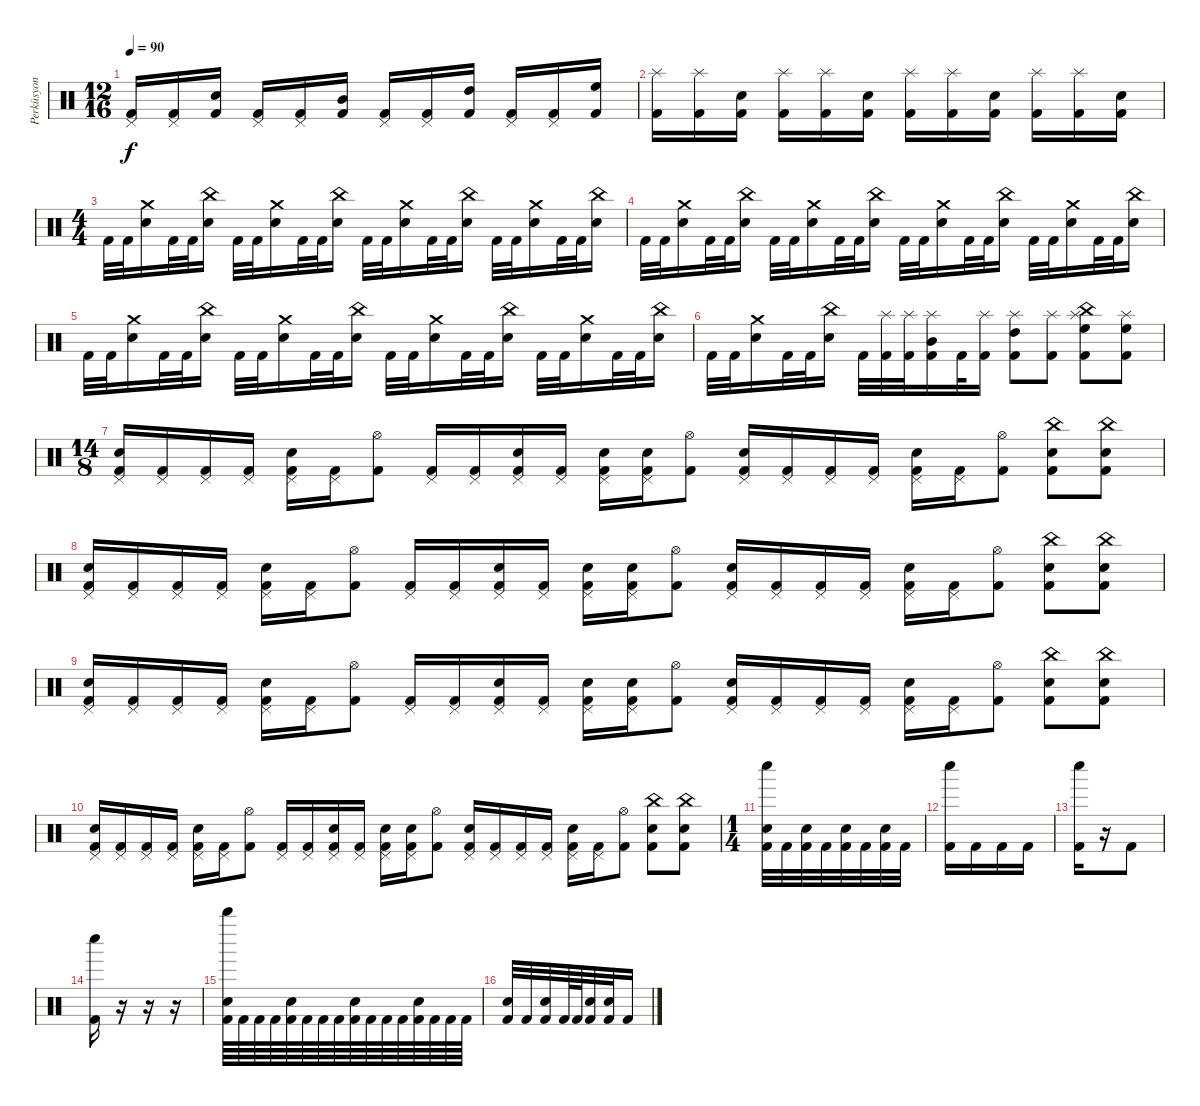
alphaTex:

\track ("Perküsyon" "Perküsyon") {instrument percussion}
\staff {score}
\articulation defaults
\ts (12 16)
\tempo 90
\clef neutral
\ks c
("Pedal Hi-Hat (hit)" "Kick (hit) 2").16{dy f} ("Pedal Hi-Hat (hit)" "Kick (hit) 2").16 ("Electric Snare (hit)" "Kick (hit) 2").16 ("Pedal Hi-Hat (hit)" "Kick (hit) 2").16 ("Pedal Hi-Hat (hit)" "Kick (hit) 2").16 ("Mid Tom (hit)" "Kick (hit) 2").16 ("Pedal Hi-Hat (hit)" "Kick (hit) 2").16 ("Pedal Hi-Hat (hit)" "Kick (hit) 2").16 ("High Tom (hit)" "Kick (hit) 2").16 ("Pedal Hi-Hat (hit)" "Kick (hit) 2").16 ("Pedal Hi-Hat (hit)" "Kick (hit) 2").16 ("High Floor Tom (hit)" "Kick (hit) 2").16 |
("Splash (hit)" "Kick (hit) 2").16 ("Splash (hit)" "Kick (hit) 2").16 ("Electric Snare (hit)" "Kick (hit) 2").16 ("Splash (hit)" "Kick (hit) 2").16 ("Splash (hit)" "Kick (hit) 2").16 ("Electric Snare (hit)" "Kick (hit) 2").16 ("Splash (hit)" "Kick (hit) 2").16 ("Splash (hit)" "Kick (hit) 2").16 ("Electric Snare (hit)" "Kick (hit) 2").16 ("Splash (hit)" "Kick (hit) 2").16 ("Splash (hit)" "Kick (hit) 2").16 ("Electric Snare (hit)" "Kick (hit) 2").16 |
\ts (4 4)
"Kick (hit) 2".32 "Kick (hit) 2".32 ("Crash medium (hit)" "Electric Snare (hit)").16 "Kick (hit) 2".32 "Kick (hit) 2".32 ("China (hit)" "Electric Snare (hit)").16 "Kick (hit) 2".32 "Kick (hit) 2".32 ("Crash medium (hit)" "Electric Snare (hit)").16 "Kick (hit) 2".32 "Kick (hit) 2".32 ("China (hit)" "Electric Snare (hit)").16 "Kick (hit) 2".32 "Kick (hit) 2".32 ("Crash medium (hit)" "Electric Snare (hit)").16 "Kick (hit) 2".32 "Kick (hit) 2".32 ("China (hit)" "Electric Snare (hit)").16 "Kick (hit) 2".32 "Kick (hit) 2".32 ("Crash medium (hit)" "Electric Snare (hit)").16 "Kick (hit) 2".32 "Kick (hit) 2".32 ("China (hit)" "Electric Snare (hit)").16 |
"Kick (hit) 2".32 "Kick (hit) 2".32 ("Crash medium (hit)" "Electric Snare (hit)").16 "Kick (hit) 2".32 "Kick (hit) 2".32 ("China (hit)" "Electric Snare (hit)").16 "Kick (hit) 2".32 "Kick (hit) 2".32 ("Crash medium (hit)" "Electric Snare (hit)").16 "Kick (hit) 2".32 "Kick (hit) 2".32 ("China (hit)" "Electric Snare (hit)").16 "Kick (hit) 2".32 "Kick (hit) 2".32 ("Crash medium (hit)" "Electric Snare (hit)").16 "Kick (hit) 2".32 "Kick (hit) 2".32 ("China (hit)" "Electric Snare (hit)").16 "Kick (hit) 2".32 "Kick (hit) 2".32 ("Crash medium (hit)" "Electric Snare (hit)").16 "Kick (hit) 2".32 "Kick (hit) 2".32 ("China (hit)" "Electric Snare (hit)").16 |
"Kick (hit) 2".32 "Kick (hit) 2".32 ("Crash medium (hit)" "Electric Snare (hit)").16 "Kick (hit) 2".32 "Kick (hit) 2".32 ("China (hit)" "Electric Snare (hit)").16 "Kick (hit) 2".32 "Kick (hit) 2".32 ("Crash medium (hit)" "Electric Snare (hit)").16 "Kick (hit) 2".32 "Kick (hit) 2".32 ("China (hit)" "Electric Snare (hit)").16 "Kick (hit) 2".32 "Kick (hit) 2".32 ("Crash medium (hit)" "Electric Snare (hit)").16 "Kick (hit) 2".32 "Kick (hit) 2".32 ("China (hit)" "Electric Snare (hit)").16 "Kick (hit) 2".32 "Kick (hit) 2".32 ("Crash medium (hit)" "Electric Snare (hit)").16 "Kick (hit) 2".32 "Kick (hit) 2".32 ("China (hit)" "Electric Snare (hit)").16 |
"Kick (hit) 2".32 "Kick (hit) 2".32 ("Crash medium (hit)" "Electric Snare (hit)").16 "Kick (hit) 2".32 "Kick (hit) 2".32 ("China (hit)" "Electric Snare (hit)").16 "Kick (hit) 2".32 ("Splash (hit)" "Kick (hit) 2").32 ("Splash (hit)" "Kick (hit) 2").32 ("Splash (hit)" "Mid Tom (hit)" "Kick (hit) 2").16 "Kick (hit) 2".32 ("Splash (hit)" "Kick (hit) 2").16 ("Splash (hit)" "High Tom (hit)" "Kick (hit) 2").8 ("Splash (hit)" "Kick (hit) 2").8 ("Splash (hit)" "High Floor Tom (hit)" "China (hit)" "Kick (hit) 2").8 ("Splash (hit)" "High Floor Tom (hit)" "Kick (hit) 2").8 |
\ts (14 8)
("Pedal Hi-Hat (hit)" "Electric Snare (hit)" "Kick (hit) 2").16 ("Pedal Hi-Hat (hit)" "Kick (hit) 2").16 ("Pedal Hi-Hat (hit)" "Kick (hit) 2").16 ("Pedal Hi-Hat (hit)" "Kick (hit) 2").16 ("Pedal Hi-Hat (hit)" "Electric Snare (hit)" "Kick (hit) 2").16 ("Pedal Hi-Hat (hit)" "Kick (hit) 2").16 ("Hi-Hat (open)" "Kick (hit) 2").8 ("Pedal Hi-Hat (hit)" "Kick (hit) 2").16 ("Pedal Hi-Hat (hit)" "Kick (hit) 2").16 ("Pedal Hi-Hat (hit)" "Electric Snare (hit)" "Kick (hit) 2").16 ("Pedal Hi-Hat (hit)" "Kick (hit) 2").16 ("Pedal Hi-Hat (hit)" "Electric Snare (hit)" "Kick (hit) 2").16 ("Pedal Hi-Hat (hit)" "Electric Snare (hit)" "Kick (hit) 2").16 ("Hi-Hat (open)" "Kick (hit) 2").8 ("Pedal Hi-Hat (hit)" "Electric Snare (hit)" "Kick (hit) 2").16 ("Pedal Hi-Hat (hit)" "Kick (hit) 2").16 ("Pedal Hi-Hat (hit)" "Kick (hit) 2").16 ("Pedal Hi-Hat (hit)" "Kick (hit) 2").16 ("Pedal Hi-Hat (hit)" "Electric Snare (hit)" "Kick (hit) 2").16 ("Pedal Hi-Hat (hit)" "Kick (hit) 2").16 ("Hi-Hat (open)" "Kick (hit) 2").8 ("China (hit)" "Electric Snare (hit)" "Kick (hit) 2").8 ("China (hit)" "Electric Snare (hit)" "Kick (hit) 2").8 |
("Pedal Hi-Hat (hit)" "Electric Snare (hit)" "Kick (hit) 2").16 ("Pedal Hi-Hat (hit)" "Kick (hit) 2").16 ("Pedal Hi-Hat (hit)" "Kick (hit) 2").16 ("Pedal Hi-Hat (hit)" "Kick (hit) 2").16 ("Pedal Hi-Hat (hit)" "Electric Snare (hit)" "Kick (hit) 2").16 ("Pedal Hi-Hat (hit)" "Kick (hit) 2").16 ("Hi-Hat (open)" "Kick (hit) 2").8 ("Pedal Hi-Hat (hit)" "Kick (hit) 2").16 ("Pedal Hi-Hat (hit)" "Kick (hit) 2").16 ("Pedal Hi-Hat (hit)" "Electric Snare (hit)" "Kick (hit) 2").16 ("Pedal Hi-Hat (hit)" "Kick (hit) 2").16 ("Pedal Hi-Hat (hit)" "Electric Snare (hit)" "Kick (hit) 2").16 ("Pedal Hi-Hat (hit)" "Electric Snare (hit)" "Kick (hit) 2").16 ("Hi-Hat (open)" "Kick (hit) 2").8 ("Pedal Hi-Hat (hit)" "Electric Snare (hit)" "Kick (hit) 2").16 ("Pedal Hi-Hat (hit)" "Kick (hit) 2").16 ("Pedal Hi-Hat (hit)" "Kick (hit) 2").16 ("Pedal Hi-Hat (hit)" "Kick (hit) 2").16 ("Pedal Hi-Hat (hit)" "Electric Snare (hit)" "Kick (hit) 2").16 ("Pedal Hi-Hat (hit)" "Kick (hit) 2").16 ("Hi-Hat (open)" "Kick (hit) 2").8 ("China (hit)" "Electric Snare (hit)" "Kick (hit) 2").8 ("China (hit)" "Electric Snare (hit)" "Kick (hit) 2").8 |
("Pedal Hi-Hat (hit)" "Electric Snare (hit)" "Kick (hit) 2").16 ("Pedal Hi-Hat (hit)" "Kick (hit) 2").16 ("Pedal Hi-Hat (hit)" "Kick (hit) 2").16 ("Pedal Hi-Hat (hit)" "Kick (hit) 2").16 ("Pedal Hi-Hat (hit)" "Electric Snare (hit)" "Kick (hit) 2").16 ("Pedal Hi-Hat (hit)" "Kick (hit) 2").16 ("Hi-Hat (open)" "Kick (hit) 2").8 ("Pedal Hi-Hat (hit)" "Kick (hit) 2").16 ("Pedal Hi-Hat (hit)" "Kick (hit) 2").16 ("Pedal Hi-Hat (hit)" "Electric Snare (hit)" "Kick (hit) 2").16 ("Pedal Hi-Hat (hit)" "Kick (hit) 2").16 ("Pedal Hi-Hat (hit)" "Electric Snare (hit)" "Kick (hit) 2").16 ("Pedal Hi-Hat (hit)" "Electric Snare (hit)" "Kick (hit) 2").16 ("Hi-Hat (open)" "Kick (hit) 2").8 ("Pedal Hi-Hat (hit)" "Electric Snare (hit)" "Kick (hit) 2").16 ("Pedal Hi-Hat (hit)" "Kick (hit) 2").16 ("Pedal Hi-Hat (hit)" "Kick (hit) 2").16 ("Pedal Hi-Hat (hit)" "Kick (hit) 2").16 ("Pedal Hi-Hat (hit)" "Electric Snare (hit)" "Kick (hit) 2").16 ("Pedal Hi-Hat (hit)" "Kick (hit) 2").16 ("Hi-Hat (open)" "Kick (hit) 2").8 ("China (hit)" "Electric Snare (hit)" "Kick (hit) 2").8 ("China (hit)" "Electric Snare (hit)" "Kick (hit) 2").8 |
("Pedal Hi-Hat (hit)" "Electric Snare (hit)" "Kick (hit) 2").16 ("Pedal Hi-Hat (hit)" "Kick (hit) 2").16 ("Pedal Hi-Hat (hit)" "Kick (hit) 2").16 ("Pedal Hi-Hat (hit)" "Kick (hit) 2").16 ("Pedal Hi-Hat (hit)" "Electric Snare (hit)" "Kick (hit) 2").16 ("Pedal Hi-Hat (hit)" "Kick (hit) 2").16 ("Hi-Hat (open)" "Kick (hit) 2").8 ("Pedal Hi-Hat (hit)" "Kick (hit) 2").16 ("Pedal Hi-Hat (hit)" "Kick (hit) 2").16 ("Pedal Hi-Hat (hit)" "Electric Snare (hit)" "Kick (hit) 2").16 ("Pedal Hi-Hat (hit)" "Kick (hit) 2").16 ("Pedal Hi-Hat (hit)" "Electric Snare (hit)" "Kick (hit) 2").16 ("Pedal Hi-Hat (hit)" "Electric Snare (hit)" "Kick (hit) 2").16 ("Hi-Hat (open)" "Kick (hit) 2").8 ("Pedal Hi-Hat (hit)" "Electric Snare (hit)" "Kick (hit) 2").16 ("Pedal Hi-Hat (hit)" "Kick (hit) 2").16 ("Pedal Hi-Hat (hit)" "Kick (hit) 2").16 ("Pedal Hi-Hat (hit)" "Kick (hit) 2").16 ("Pedal Hi-Hat (hit)" "Electric Snare (hit)" "Kick (hit) 2").16 ("Pedal Hi-Hat (hit)" "Kick (hit) 2").16 ("Hi-Hat (open)" "Kick (hit) 2").8 ("China (hit)" "Electric Snare (hit)" "Kick (hit) 2").8 ("China (hit)" "Electric Snare (hit)" "Kick (hit) 2").8 |
\ts (1 4)
("Whistle low (hit)" "Electric Snare (hit)" "Kick (hit) 2").32 "Kick (hit) 2".32 ("Electric Snare (hit)" "Kick (hit) 2").32 "Kick (hit) 2".32 ("Electric Snare (hit)" "Kick (hit) 2").32 "Kick (hit) 2".32 ("Electric Snare (hit)" "Kick (hit) 2").32 "Kick (hit) 2".32 |
("Whistle low (hit)" "Kick (hit) 2").16 "Kick (hit) 2".16 "Kick (hit) 2".16 "Kick (hit) 2".16 |
("Whistle low (hit)" "Kick (hit) 2").16 r.16 "Kick (hit) 2".8 |
("Whistle low (hit)" "Kick (hit) 2").16 r.16 r.16 r.16 |
("Whistle high (hit)" "Electric Snare (hit)" "Kick (hit) 2").64 "Kick (hit) 2".64 "Kick (hit) 2".64 "Kick (hit) 2".64 ("Electric Snare (hit)" "Kick (hit) 2").64 "Kick (hit) 2".64 "Kick (hit) 2".64 "Kick (hit) 2".64 ("Electric Snare (hit)" "Kick (hit) 2").64 "Kick (hit) 2".64 "Kick (hit) 2".64 "Kick (hit) 2".64 ("Electric Snare (hit)" "Kick (hit) 2").64 "Kick (hit) 2".64 "Kick (hit) 2".64 "Kick (hit) 2".64 |
("Electric Snare (hit)" "Kick (hit) 2").32 "Kick (hit) 2".32 ("Electric Snare (hit)" "Kick (hit) 2").32 "Kick (hit) 2".64 "Kick (hit) 2".64 ("Electric Snare (hit)" "Kick (hit) 2").32 ("Electric Snare (hit)" "Kick (hit) 2").32 "Kick (hit) 2".16
